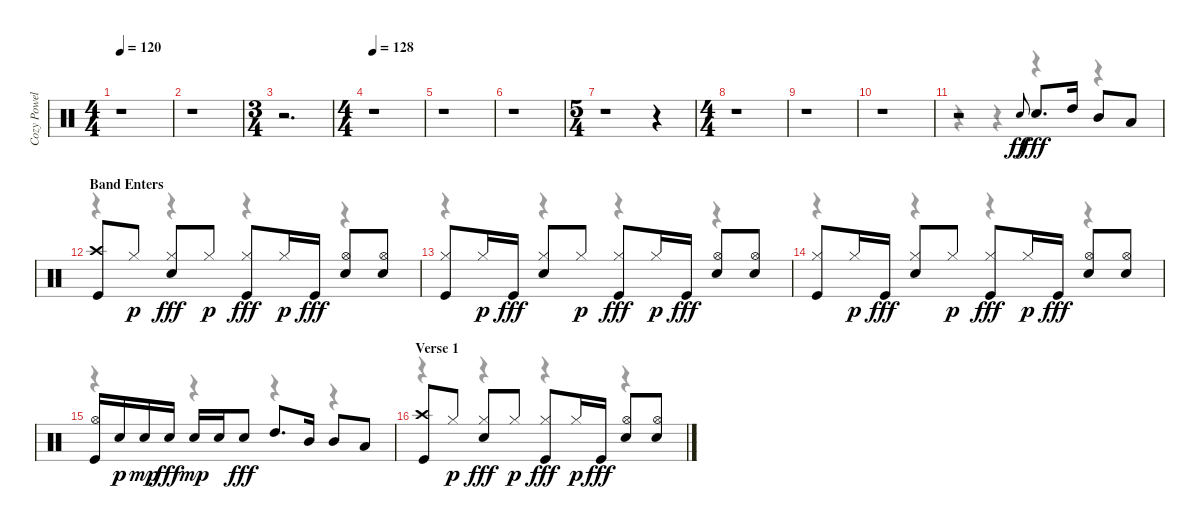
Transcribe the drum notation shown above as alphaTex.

\track ("Cozy Powell - Drums" "Cozy Powel") {instrument percussion}
\staff {score}
\articulation defaults
\voice
\ts (4 4)
\tempo 120
\clef neutral
\ks c
r.1{dy ff} |
r.1 |
\ts (3 4)
r.2{d} |
\ts (4 4)
\tempo 128
r.1 |
r.1 |
r.1 |
\ts (5 4)
r.1 r.4 |
\ts (4 4)
r.1 |
r.1 |
r.1 |
r.2 "Snare (hit)".8{gr onbeat} "Snare (hit) 2".8{d dy fff} "High Tom (hit)".16 "Mid Tom (hit)".8 "Low Tom (hit)".8 |
\section ("" "Band Enters")
("Kick (hit)" "Crash high (hit)").8 "Hi-Hat (closed)".8{dy p} ("Snare (hit) 2" "Hi-Hat (closed)").8{dy fff} "Hi-Hat (closed)".8{dy p} ("Kick (hit)" "Hi-Hat (closed)").8{dy fff} "Hi-Hat (closed)".16{dy p} "Kick (hit)".16{dy fff} ("Snare (hit) 2" "Hi-Hat (open)").8 ("Snare (hit) 2" "Hi-Hat (open)").8 |
("Kick (hit)" "Hi-Hat (closed)").8 "Hi-Hat (closed)".16{dy p} "Kick (hit)".16{dy fff} ("Snare (hit) 2" "Hi-Hat (closed)").8 "Hi-Hat (closed)".8{dy p} ("Kick (hit)" "Hi-Hat (closed)").8{dy fff} "Hi-Hat (closed)".16{dy p} "Kick (hit)".16{dy fff} ("Snare (hit) 2" "Hi-Hat (open)").8 ("Snare (hit) 2" "Hi-Hat (open)").8 |
("Kick (hit)" "Hi-Hat (closed)").8 "Hi-Hat (closed)".16{dy p} "Kick (hit)".16{dy fff} ("Snare (hit) 2" "Hi-Hat (closed)").8 "Hi-Hat (closed)".8{dy p} ("Kick (hit)" "Hi-Hat (closed)").8{dy fff} "Hi-Hat (closed)".16{dy p} "Kick (hit)".16{dy fff} ("Snare (hit) 2" "Hi-Hat (open)").8 ("Snare (hit) 2" "Hi-Hat (open)").8 |
("Kick (hit)" "Hi-Hat (open)").16 "Snare (hit) 2".16{dy p} "Snare (hit) 2".16{dy mp} "Snare (hit) 2".16{dy fff} "Snare (hit) 2".16{dy mp} "Snare (hit) 2".16 "Snare (hit) 2".8{dy fff} "High Tom (hit)".8{d} "Mid Tom (hit)".16 "Mid Tom (hit)".8 "Low Tom (hit)".8 |
\section ("" "Verse 1")
("Kick (hit)" "Crash high (hit)").8 "Hi-Hat (closed)".8{dy p} ("Snare (hit) 2" "Hi-Hat (closed)").8{dy fff} "Hi-Hat (closed)".8{dy p} ("Kick (hit)" "Hi-Hat (closed)").8{dy fff} "Hi-Hat (closed)".16{dy p} "Kick (hit)".16{dy fff} ("Snare (hit) 2" "Hi-Hat (open)").8 ("Snare (hit) 2" "Hi-Hat (open)").8
\voice
\clef neutral
\ottava regular
\simile none
\ks c
|
|
|
|
|
|
|
|
|
|
r.4 r.4 r.4 r.4 |
r.4 r.4 r.4 r.4 |
r.4 r.4 r.4 r.4 |
r.4 r.4 r.4 r.4 |
r.4 r.4 r.4 r.4 |
r.4 r.4 r.4 r.4
